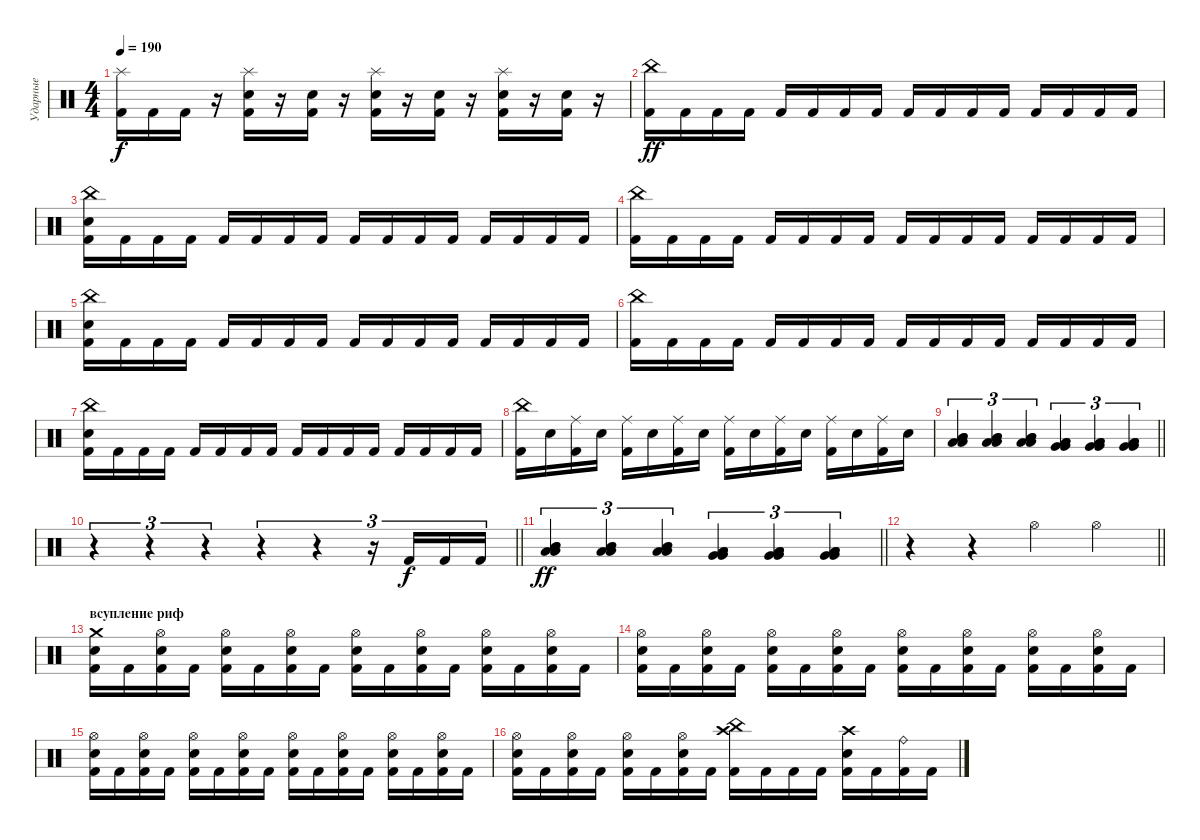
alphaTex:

\track ("Ударные" "Ударные") {instrument percussion}
\staff {score}
\articulation defaults
\ts (4 4)
\tempo 190
\clef neutral
\ks c
("Splash (hit)" "Kick (hit) 2").16{dy f} "Kick (hit) 2".16 "Kick (hit) 2".16 r.16 ("Splash (hit)" "Electric Snare (hit)" "Kick (hit) 2").16 r.16 ("Electric Snare (hit)" "Kick (hit) 2").16 r.16 ("Splash (hit)" "Electric Snare (hit)" "Kick (hit) 2").16 r.16 ("Electric Snare (hit)" "Kick (hit) 2").16 r.16 ("Splash (hit)" "Electric Snare (hit)" "Kick (hit) 2").16 r.16 ("Electric Snare (hit)" "Kick (hit) 2").16 r.16 |
("China (hit)" "Kick (hit) 2").16{dy ff} "Kick (hit) 2".16 "Kick (hit) 2".16 "Kick (hit) 2".16 "Kick (hit) 2".16 "Kick (hit) 2".16 "Kick (hit) 2".16 "Kick (hit) 2".16 "Kick (hit) 2".16 "Kick (hit) 2".16 "Kick (hit) 2".16 "Kick (hit) 2".16 "Kick (hit) 2".16 "Kick (hit) 2".16 "Kick (hit) 2".16 "Kick (hit) 2".16 |
("China (hit)" "Electric Snare (hit)" "Kick (hit) 2").16 "Kick (hit) 2".16 "Kick (hit) 2".16 "Kick (hit) 2".16 "Kick (hit) 2".16 "Kick (hit) 2".16 "Kick (hit) 2".16 "Kick (hit) 2".16 "Kick (hit) 2".16 "Kick (hit) 2".16 "Kick (hit) 2".16 "Kick (hit) 2".16 "Kick (hit) 2".16 "Kick (hit) 2".16 "Kick (hit) 2".16 "Kick (hit) 2".16 |
("China (hit)" "Kick (hit) 2").16 "Kick (hit) 2".16 "Kick (hit) 2".16 "Kick (hit) 2".16 "Kick (hit) 2".16 "Kick (hit) 2".16 "Kick (hit) 2".16 "Kick (hit) 2".16 "Kick (hit) 2".16 "Kick (hit) 2".16 "Kick (hit) 2".16 "Kick (hit) 2".16 "Kick (hit) 2".16 "Kick (hit) 2".16 "Kick (hit) 2".16 "Kick (hit) 2".16 |
("China (hit)" "Electric Snare (hit)" "Kick (hit) 2").16 "Kick (hit) 2".16 "Kick (hit) 2".16 "Kick (hit) 2".16 "Kick (hit) 2".16 "Kick (hit) 2".16 "Kick (hit) 2".16 "Kick (hit) 2".16 "Kick (hit) 2".16 "Kick (hit) 2".16 "Kick (hit) 2".16 "Kick (hit) 2".16 "Kick (hit) 2".16 "Kick (hit) 2".16 "Kick (hit) 2".16 "Kick (hit) 2".16 |
("China (hit)" "Kick (hit) 2").16 "Kick (hit) 2".16 "Kick (hit) 2".16 "Kick (hit) 2".16 "Kick (hit) 2".16 "Kick (hit) 2".16 "Kick (hit) 2".16 "Kick (hit) 2".16 "Kick (hit) 2".16 "Kick (hit) 2".16 "Kick (hit) 2".16 "Kick (hit) 2".16 "Kick (hit) 2".16 "Kick (hit) 2".16 "Kick (hit) 2".16 "Kick (hit) 2".16 |
("China (hit)" "Electric Snare (hit)" "Kick (hit) 2").16 "Kick (hit) 2".16 "Kick (hit) 2".16 "Kick (hit) 2".16 "Kick (hit) 2".16 "Kick (hit) 2".16 "Kick (hit) 2".16 "Kick (hit) 2".16 "Kick (hit) 2".16 "Kick (hit) 2".16 "Kick (hit) 2".16 "Kick (hit) 2".16 "Kick (hit) 2".16 "Kick (hit) 2".16 "Kick (hit) 2".16 "Kick (hit) 2".16 |
("China (hit)" "Kick (hit) 2").16 "Electric Snare (hit)".16 ("Ride (middle)" "Kick (hit) 2").16 "Electric Snare (hit)".16 ("Ride (middle)" "Kick (hit) 2").16 "Electric Snare (hit)".16 ("Ride (middle)" "Kick (hit) 2").16 "Electric Snare (hit)".16 ("Ride (middle)" "Kick (hit) 2").16 "Electric Snare (hit)".16 ("Ride (middle)" "Kick (hit) 2").16 "Electric Snare (hit)".16 ("Ride (middle)" "Kick (hit) 2").16 "Electric Snare (hit)".16 ("Ride (middle)" "Kick (hit) 2").16 "Electric Snare (hit)".16 |
\barLineRight lightlight
("Mid Tom (hit)" "Mid Tom (hit)" "Low Tom (hit)" "Low Tom (hit)").4{tu (3 2)} ("Mid Tom (hit)" "Mid Tom (hit)" "Low Tom (hit)" "Low Tom (hit)").4{tu (3 2)} ("Mid Tom (hit)" "Mid Tom (hit)" "Low Tom (hit)" "Low Tom (hit)").4{tu (3 2)} ("Low Floor Tom (hit)" "Low Floor Tom (hit)" "Very Low Tom (hit)" "Very Low Tom (hit)").4{tu (3 2)} ("Low Floor Tom (hit)" "Low Floor Tom (hit)" "Very Low Tom (hit)" "Very Low Tom (hit)").4{tu (3 2)} ("Low Floor Tom (hit)" "Low Floor Tom (hit)" "Very Low Tom (hit)" "Very Low Tom (hit)").4{tu (3 2)} |
\barLineRight lightlight
r.4{tu (3 2)} r.4{tu (3 2)} r.4{tu (3 2)} r.4{tu (3 2)} r.4{tu (3 2)} r.16{tu (3 2)} "Kick (hit) 2".16{tu (3 2) dy f} "Kick (hit) 2".16{tu (3 2)} "Kick (hit) 2".16{tu (3 2)} |
\barLineRight lightlight
("Mid Tom (hit)" "Mid Tom (hit)" "Low Tom (hit)" "Low Tom (hit)").4{tu (3 2) dy ff} ("Mid Tom (hit)" "Mid Tom (hit)" "Low Tom (hit)" "Low Tom (hit)").4{tu (3 2)} ("Mid Tom (hit)" "Mid Tom (hit)" "Low Tom (hit)" "Low Tom (hit)").4{tu (3 2)} ("Low Floor Tom (hit)" "Low Floor Tom (hit)" "Very Low Tom (hit)" "Very Low Tom (hit)").4{tu (3 2)} ("Low Floor Tom (hit)" "Low Floor Tom (hit)" "Very Low Tom (hit)" "Very Low Tom (hit)").4{tu (3 2)} ("Low Floor Tom (hit)" "Low Floor Tom (hit)" "Very Low Tom (hit)" "Very Low Tom (hit)").4{tu (3 2)} |
\barLineRight lightlight
r.4 r.4 "Hi-Hat (open)".4 "Hi-Hat (open)".4 |
\section ("" "всупление риф")
("Crash medium (hit)" "Electric Snare (hit)" "Kick (hit) 2").16 "Kick (hit) 2".16 ("Hi-Hat (open)" "Electric Snare (hit)" "Kick (hit) 2").16 "Kick (hit) 2".16 ("Hi-Hat (open)" "Electric Snare (hit)" "Kick (hit) 2").16 "Kick (hit) 2".16 ("Hi-Hat (open)" "Electric Snare (hit)" "Kick (hit) 2").16 "Kick (hit) 2".16 ("Hi-Hat (open)" "Electric Snare (hit)" "Kick (hit) 2").16 "Kick (hit) 2".16 ("Hi-Hat (open)" "Electric Snare (hit)" "Kick (hit) 2").16 "Kick (hit) 2".16 ("Hi-Hat (open)" "Electric Snare (hit)" "Kick (hit) 2").16 "Kick (hit) 2".16 ("Hi-Hat (open)" "Electric Snare (hit)" "Kick (hit) 2").16 "Kick (hit) 2".16 |
("Hi-Hat (open)" "Electric Snare (hit)" "Kick (hit) 2").16 "Kick (hit) 2".16 ("Hi-Hat (open)" "Electric Snare (hit)" "Kick (hit) 2").16 "Kick (hit) 2".16 ("Hi-Hat (open)" "Electric Snare (hit)" "Kick (hit) 2").16 "Kick (hit) 2".16 ("Hi-Hat (open)" "Electric Snare (hit)" "Kick (hit) 2").16 "Kick (hit) 2".16 ("Hi-Hat (open)" "Electric Snare (hit)" "Kick (hit) 2").16 "Kick (hit) 2".16 ("Hi-Hat (open)" "Electric Snare (hit)" "Kick (hit) 2").16 "Kick (hit) 2".16 ("Hi-Hat (open)" "Electric Snare (hit)" "Kick (hit) 2").16 "Kick (hit) 2".16 ("Hi-Hat (open)" "Electric Snare (hit)" "Kick (hit) 2").16 "Kick (hit) 2".16 |
("Hi-Hat (open)" "Electric Snare (hit)" "Kick (hit) 2").16 "Kick (hit) 2".16 ("Hi-Hat (open)" "Electric Snare (hit)" "Kick (hit) 2").16 "Kick (hit) 2".16 ("Hi-Hat (open)" "Electric Snare (hit)" "Kick (hit) 2").16 "Kick (hit) 2".16 ("Hi-Hat (open)" "Electric Snare (hit)" "Kick (hit) 2").16 "Kick (hit) 2".16 ("Hi-Hat (open)" "Electric Snare (hit)" "Kick (hit) 2").16 "Kick (hit) 2".16 ("Hi-Hat (open)" "Electric Snare (hit)" "Kick (hit) 2").16 "Kick (hit) 2".16 ("Hi-Hat (open)" "Electric Snare (hit)" "Kick (hit) 2").16 "Kick (hit) 2".16 ("Hi-Hat (open)" "Electric Snare (hit)" "Kick (hit) 2").16 "Kick (hit) 2".16 |
("Hi-Hat (open)" "Electric Snare (hit)" "Kick (hit) 2").16 "Kick (hit) 2".16 ("Hi-Hat (open)" "Electric Snare (hit)" "Kick (hit) 2").16 "Kick (hit) 2".16 ("Hi-Hat (open)" "Electric Snare (hit)" "Kick (hit) 2").16 "Kick (hit) 2".16 ("Hi-Hat (open)" "Electric Snare (hit)" "Kick (hit) 2").16 "Kick (hit) 2".16 ("Crash high (hit)" "China (hit)" "Kick (hit) 2").16 "Kick (hit) 2".16 "Kick (hit) 2".16 "Kick (hit) 2".16 ("Crash high (hit)" "Electric Snare (hit)" "Kick (hit) 2").16 "Kick (hit) 2".16 ("Ride (bell)" "Kick (hit) 2").16 "Kick (hit) 2".16
